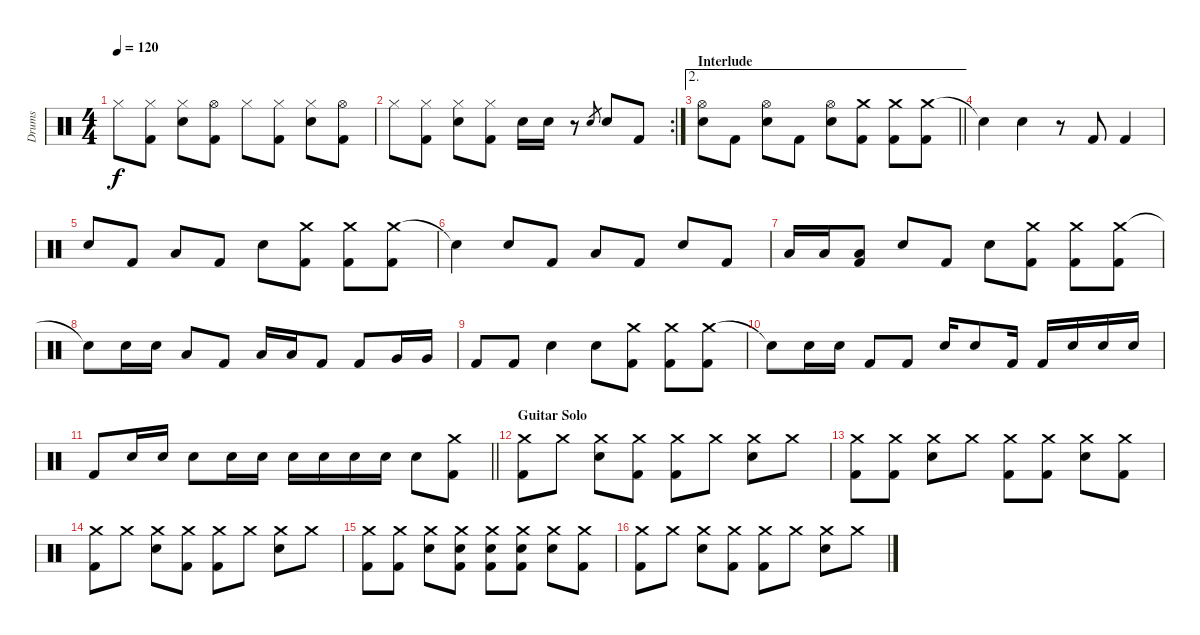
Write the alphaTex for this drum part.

\track ("Drums" "Drums") {instrument percussion}
\staff {score}
\articulation defaults
\ts (4 4)
\tempo 120
\clef neutral
\ks c "Hi-Hat (closed)".8{dy f}
("Hi-Hat (closed)" "Kick (hit) 2").8 ("Hi-Hat (closed)" "Snare (hit) 2").8 ("Hi-Hat (open)" "Kick (hit) 2").8 "Hi-Hat (closed)".8 ("Hi-Hat (closed)" "Kick (hit) 2").8 ("Hi-Hat (closed)" "Snare (hit) 2").8 ("Hi-Hat (open)" "Kick (hit) 2").8 |
\rc 2 "Hi-Hat (closed)".8
("Hi-Hat (closed)" "Kick (hit) 2").8 ("Hi-Hat (closed)" "Snare (hit) 2").8 ("Hi-Hat (closed)" "Kick (hit) 2").8 "Snare (hit) 2".16 "Snare (hit) 2".16 r.8 "Snare (hit) 2".8{gr} "Snare (hit) 2".8 "Kick (hit) 2".8 |
\ae 2
\section ("" "Interlude")
\barLineRight lightlight
("Hi-Hat (open)" "Snare (hit) 2").8 "Kick (hit) 2".8 ("Hi-Hat (open)" "Snare (hit) 2").8 "Kick (hit) 2".8 ("Hi-Hat (open)" "Snare (hit) 2").8 ("Crash medium (hit)" "Kick (hit) 2").8 ("Crash medium (hit)" "Kick (hit) 2").8 ("Crash medium (hit)" "Kick (hit) 2").8 |
"Snare (hit)"{t}.4 "Snare (hit) 2".4 r.8 "Kick (hit) 2".8 "Kick (hit) 2".4 |
"Snare (hit) 2".8 "Kick (hit) 2".8 "Low Tom (hit)".8 "Kick (hit) 2".8 "Snare (hit) 2".8 ("Crash medium (hit)" "Kick (hit) 2").8 ("Crash medium (hit)" "Kick (hit) 2").8 ("Crash medium (hit)" "Kick (hit) 2").8 |
"Snare (hit)"{t}.4 "Snare (hit) 2".8 "Kick (hit) 2".8 "Low Tom (hit)".8 "Kick (hit) 2".8 "Snare (hit) 2".8 "Kick (hit) 2".8 |
"Low Tom (hit)".16 "Low Tom (hit)".16 ("Low Tom (hit)" "Kick (hit) 2").8 "Snare (hit) 2".8 "Kick (hit) 2".8 "Snare (hit) 2".8 ("Crash medium (hit)" "Kick (hit) 2").8 ("Crash medium (hit)" "Kick (hit) 2").8 ("Crash medium (hit)" "Kick (hit) 2").8 |
"Snare (hit)"{t}.8 "Snare (hit) 2".16 "Snare (hit) 2".16 "Low Tom (hit)".8 "Kick (hit) 2".8 "Low Tom (hit)".16 "Low Tom (hit)".16 "Kick (hit) 2".8 "Kick (hit) 2".8 "Very Low Tom (hit)".16 "Very Low Tom (hit)".16 |
"Kick (hit) 2".8 "Kick (hit) 2".8 "Snare (hit) 2".4 "Snare (hit) 2".8 ("Crash medium (hit)" "Kick (hit) 2").8 ("Crash medium (hit)" "Kick (hit) 2").8 ("Crash medium (hit)" "Kick (hit) 2").8 |
"Snare (hit)"{t}.8 "Snare (hit) 2".16 "Snare (hit) 2".16 "Kick (hit) 2".8 "Kick (hit) 2".8 "Snare (hit) 2".16 "Snare (hit) 2".8 "Kick (hit) 2".16 "Kick (hit) 2".16 "Snare (hit) 2".16 "Snare (hit) 2".16 "Snare (hit) 2".16 |
\barLineRight lightlight "Kick (hit) 2".8 "Snare (hit) 2".16 "Snare (hit) 2".16 "Snare (hit) 2".8 "Snare (hit) 2".16 "Snare (hit) 2".16 "Snare (hit) 2".16 "Snare (hit) 2".16 "Snare (hit) 2".16 "Snare (hit) 2".16 "Snare (hit) 2".8
("Crash medium (hit)" "Kick (hit) 2").8 |
\section ("" "Guitar Solo")
("Crash medium (hit)" "Kick (hit) 2").8 "Crash medium (hit)".8 ("Crash medium (hit)" "Snare (hit) 2").8 ("Crash medium (hit)" "Kick (hit) 2").8 ("Crash medium (hit)" "Kick (hit) 2").8 "Crash medium (hit)".8 ("Crash medium (hit)" "Snare (hit) 2").8 "Crash medium (hit)".8 |
("Crash medium (hit)" "Kick (hit) 2").8 ("Crash medium (hit)" "Kick (hit) 2").8 ("Crash medium (hit)" "Snare (hit) 2").8 "Crash medium (hit)".8 ("Crash medium (hit)" "Kick (hit) 2").8 ("Crash medium (hit)" "Kick (hit) 2").8 ("Crash medium (hit)" "Snare (hit) 2").8 ("Crash medium (hit)" "Kick (hit) 2").8 |
("Crash medium (hit)" "Kick (hit) 2").8 "Crash medium (hit)".8 ("Crash medium (hit)" "Snare (hit) 2").8 ("Crash medium (hit)" "Kick (hit) 2").8 ("Crash medium (hit)" "Kick (hit) 2").8 "Crash medium (hit)".8 ("Crash medium (hit)" "Snare (hit) 2").8 "Crash medium (hit)".8 |
("Crash medium (hit)" "Kick (hit) 2").8 ("Crash medium (hit)" "Kick (hit) 2").8 ("Crash medium (hit)" "Snare (hit) 2").8 ("Crash medium (hit)" "Kick (hit) 2" "Snare (hit) 2").8 ("Crash medium (hit)" "Snare (hit) 2" "Kick (hit) 2").8 ("Crash medium (hit)" "Snare (hit) 2" "Kick (hit) 2").8 ("Crash medium (hit)" "Snare (hit) 2").8 ("Crash medium (hit)" "Kick (hit) 2").8 |
("Crash medium (hit)" "Kick (hit) 2").8 "Crash medium (hit)".8 ("Crash medium (hit)" "Snare (hit) 2").8 ("Crash medium (hit)" "Kick (hit) 2").8 ("Crash medium (hit)" "Kick (hit) 2").8 "Crash medium (hit)".8 ("Crash medium (hit)" "Snare (hit) 2").8 "Crash medium (hit)".8
